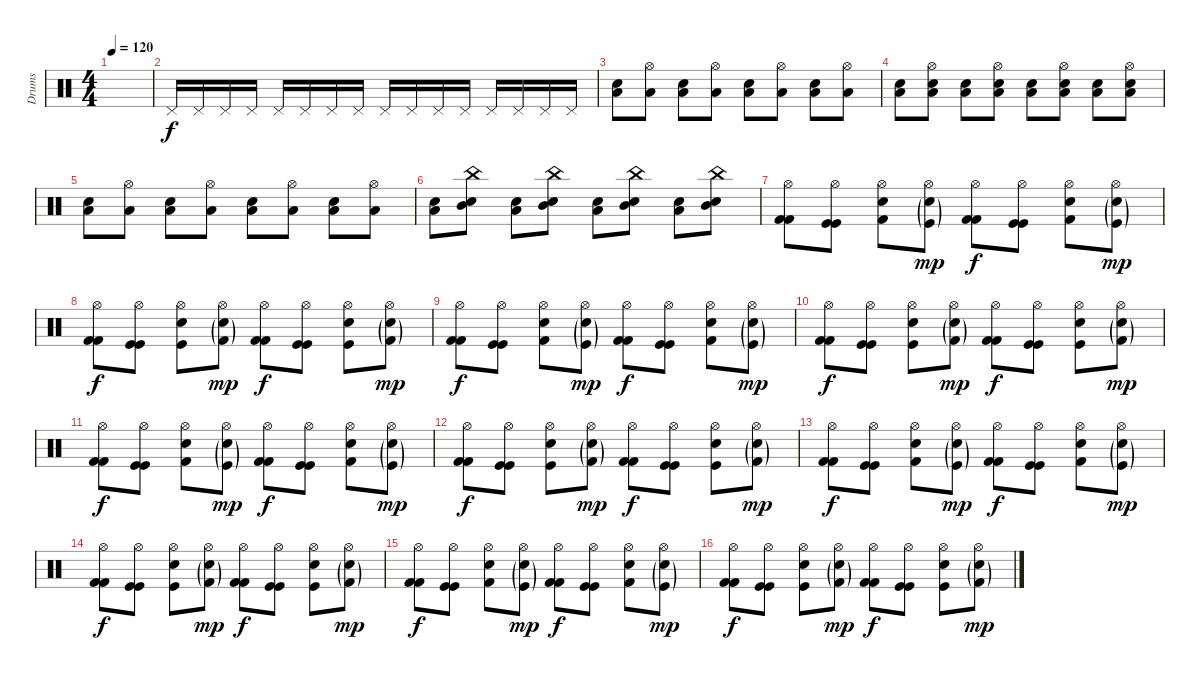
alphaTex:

\track ("Drums" "Drums") {instrument percussion}
\staff {score}
\articulation defaults
\ts (4 4)
\tempo 120
\clef neutral
\ks c
|
"Pedal Hi-Hat (hit)".16{dy f volume 16} "Pedal Hi-Hat (hit)".16 "Pedal Hi-Hat (hit)".16 "Pedal Hi-Hat (hit)".16 "Pedal Hi-Hat (hit)".16 "Pedal Hi-Hat (hit)".16 "Pedal Hi-Hat (hit)".16 "Pedal Hi-Hat (hit)".16 "Pedal Hi-Hat (hit)".16 "Pedal Hi-Hat (hit)".16 "Pedal Hi-Hat (hit)".16 "Pedal Hi-Hat (hit)".16 "Pedal Hi-Hat (hit)".16 "Pedal Hi-Hat (hit)".16 "Pedal Hi-Hat (hit)".16 "Pedal Hi-Hat (hit)".16 |
("Electric Snare (hit)" "Low Tom (hit)").8 ("Hi-Hat (open)" "Low Tom (hit)").8 ("Electric Snare (hit)" "Low Tom (hit)").8 ("Hi-Hat (open)" "Low Tom (hit)").8 ("Electric Snare (hit)" "Low Tom (hit)").8 ("Hi-Hat (open)" "Low Tom (hit)").8 ("Electric Snare (hit)" "Low Tom (hit)").8 ("Hi-Hat (open)" "Low Tom (hit)").8 |
("Electric Snare (hit)" "Low Tom (hit)").8 ("Hi-Hat (open)" "Electric Snare (hit)" "Low Tom (hit)").8 ("Electric Snare (hit)" "Low Tom (hit)").8 ("Hi-Hat (open)" "Electric Snare (hit)" "Low Tom (hit)").8 ("Electric Snare (hit)" "Low Tom (hit)").8 ("Hi-Hat (open)" "Electric Snare (hit)" "Low Tom (hit)").8 ("Electric Snare (hit)" "Low Tom (hit)").8 ("Hi-Hat (open)" "Electric Snare (hit)" "Low Tom (hit)").8 |
("Electric Snare (hit)" "Low Tom (hit)").8 ("Hi-Hat (open)" "Low Tom (hit)").8 ("Electric Snare (hit)" "Low Tom (hit)").8 ("Hi-Hat (open)" "Low Tom (hit)").8 ("Electric Snare (hit)" "Low Tom (hit)").8 ("Hi-Hat (open)" "Low Tom (hit)").8 ("Electric Snare (hit)" "Low Tom (hit)").8 ("Hi-Hat (open)" "Low Tom (hit)").8 |
("Electric Snare (hit)" "Low Tom (hit)").8 ("China (hit)" "Snare (hit) 2" "Mid Tom (hit)").8 ("Electric Snare (hit)" "Low Tom (hit)").8 ("China (hit)" "Snare (hit) 2" "Mid Tom (hit)").8 ("Electric Snare (hit)" "Low Tom (hit)").8 ("China (hit)" "Snare (hit) 2" "Mid Tom (hit)").8 ("Electric Snare (hit)" "Low Tom (hit)").8 ("China (hit)" "Snare (hit) 2" "Mid Tom (hit)").8 |
("Hi-Hat (open)" "Kick (hit) 2" "Kick (hit) 2").8 ("Hi-Hat (open)" "Kick (hit)" "Kick (hit)").8 ("Hi-Hat (open)" "Snare (hit) 2" "Kick (hit) 2").8 ("Hi-Hat (open)" "Electric Snare (hit)"{g} "Kick (hit)"{g}).8{dy mp} ("Hi-Hat (open)" "Kick (hit) 2" "Kick (hit) 2").8{dy f} ("Hi-Hat (open)" "Kick (hit)" "Kick (hit)").8 ("Hi-Hat (open)" "Snare (hit) 2" "Kick (hit) 2").8 ("Hi-Hat (open)" "Electric Snare (hit)"{g} "Kick (hit)"{g}).8{dy mp} |
("Hi-Hat (open)" "Kick (hit) 2" "Kick (hit) 2").8{dy f} ("Hi-Hat (open)" "Kick (hit)" "Kick (hit)").8 ("Hi-Hat (open)" "Electric Snare (hit)" "Kick (hit)").8 ("Hi-Hat (open)" "Snare (hit) 2"{g} "Kick (hit) 2"{g}).8{dy mp} ("Hi-Hat (open)" "Kick (hit) 2" "Kick (hit) 2").8{dy f} ("Hi-Hat (open)" "Kick (hit)" "Kick (hit)").8 ("Hi-Hat (open)" "Electric Snare (hit)" "Kick (hit)").8 ("Hi-Hat (open)" "Snare (hit) 2"{g} "Kick (hit) 2"{g}).8{dy mp} |
("Hi-Hat (open)" "Kick (hit) 2" "Kick (hit) 2").8{dy f} ("Hi-Hat (open)" "Kick (hit)" "Kick (hit)").8 ("Hi-Hat (open)" "Snare (hit) 2" "Kick (hit) 2").8 ("Hi-Hat (open)" "Electric Snare (hit)"{g} "Kick (hit)"{g}).8{dy mp} ("Hi-Hat (open)" "Kick (hit) 2" "Kick (hit) 2").8{dy f} ("Hi-Hat (open)" "Kick (hit)" "Kick (hit)").8 ("Hi-Hat (open)" "Snare (hit) 2" "Kick (hit) 2").8 ("Hi-Hat (open)" "Electric Snare (hit)"{g} "Kick (hit)"{g}).8{dy mp} |
("Hi-Hat (open)" "Kick (hit) 2" "Kick (hit) 2").8{dy f} ("Hi-Hat (open)" "Kick (hit)" "Kick (hit)").8 ("Hi-Hat (open)" "Electric Snare (hit)" "Kick (hit)").8 ("Hi-Hat (open)" "Snare (hit) 2"{g} "Kick (hit) 2"{g}).8{dy mp} ("Hi-Hat (open)" "Kick (hit) 2" "Kick (hit) 2").8{dy f} ("Hi-Hat (open)" "Kick (hit)" "Kick (hit)").8 ("Hi-Hat (open)" "Electric Snare (hit)" "Kick (hit)").8 ("Hi-Hat (open)" "Snare (hit) 2"{g} "Kick (hit) 2"{g}).8{dy mp} |
("Hi-Hat (open)" "Kick (hit) 2" "Kick (hit) 2").8{dy f} ("Hi-Hat (open)" "Kick (hit)" "Kick (hit)").8 ("Hi-Hat (open)" "Snare (hit) 2" "Kick (hit) 2").8 ("Hi-Hat (open)" "Electric Snare (hit)"{g} "Kick (hit)"{g}).8{dy mp} ("Hi-Hat (open)" "Kick (hit) 2" "Kick (hit) 2").8{dy f} ("Hi-Hat (open)" "Kick (hit)" "Kick (hit)").8 ("Hi-Hat (open)" "Snare (hit) 2" "Kick (hit) 2").8 ("Hi-Hat (open)" "Electric Snare (hit)"{g} "Kick (hit)"{g}).8{dy mp} |
("Hi-Hat (open)" "Kick (hit) 2" "Kick (hit) 2").8{dy f} ("Hi-Hat (open)" "Kick (hit)" "Kick (hit)").8 ("Hi-Hat (open)" "Electric Snare (hit)" "Kick (hit)").8 ("Hi-Hat (open)" "Snare (hit) 2"{g} "Kick (hit) 2"{g}).8{dy mp} ("Hi-Hat (open)" "Kick (hit) 2" "Kick (hit) 2").8{dy f} ("Hi-Hat (open)" "Kick (hit)" "Kick (hit)").8 ("Hi-Hat (open)" "Electric Snare (hit)" "Kick (hit)").8 ("Hi-Hat (open)" "Snare (hit) 2"{g} "Kick (hit) 2"{g}).8{dy mp} |
("Hi-Hat (open)" "Kick (hit) 2" "Kick (hit) 2").8{dy f} ("Hi-Hat (open)" "Kick (hit)" "Kick (hit)").8 ("Hi-Hat (open)" "Snare (hit) 2" "Kick (hit) 2").8 ("Hi-Hat (open)" "Electric Snare (hit)"{g} "Kick (hit)"{g}).8{dy mp} ("Hi-Hat (open)" "Kick (hit) 2" "Kick (hit) 2").8{dy f} ("Hi-Hat (open)" "Kick (hit)" "Kick (hit)").8 ("Hi-Hat (open)" "Snare (hit) 2" "Kick (hit) 2").8 ("Hi-Hat (open)" "Electric Snare (hit)"{g} "Kick (hit)"{g}).8{dy mp} |
("Hi-Hat (open)" "Kick (hit) 2" "Kick (hit) 2").8{dy f} ("Hi-Hat (open)" "Kick (hit)" "Kick (hit)").8 ("Hi-Hat (open)" "Electric Snare (hit)" "Kick (hit)").8 ("Hi-Hat (open)" "Snare (hit) 2"{g} "Kick (hit) 2"{g}).8{dy mp} ("Hi-Hat (open)" "Kick (hit) 2" "Kick (hit) 2").8{dy f} ("Hi-Hat (open)" "Kick (hit)" "Kick (hit)").8 ("Hi-Hat (open)" "Electric Snare (hit)" "Kick (hit)").8 ("Hi-Hat (open)" "Snare (hit) 2"{g} "Kick (hit) 2"{g}).8{dy mp} |
("Hi-Hat (open)" "Kick (hit) 2" "Kick (hit) 2").8{dy f} ("Hi-Hat (open)" "Kick (hit)" "Kick (hit)").8 ("Hi-Hat (open)" "Snare (hit) 2" "Kick (hit) 2").8 ("Hi-Hat (open)" "Electric Snare (hit)"{g} "Kick (hit)"{g}).8{dy mp} ("Hi-Hat (open)" "Kick (hit) 2" "Kick (hit) 2").8{dy f} ("Hi-Hat (open)" "Kick (hit)" "Kick (hit)").8 ("Hi-Hat (open)" "Snare (hit) 2" "Kick (hit) 2").8 ("Hi-Hat (open)" "Electric Snare (hit)"{g} "Kick (hit)"{g}).8{dy mp} |
("Hi-Hat (open)" "Kick (hit) 2" "Kick (hit) 2").8{dy f} ("Hi-Hat (open)" "Kick (hit)" "Kick (hit)").8 ("Hi-Hat (open)" "Electric Snare (hit)" "Kick (hit)").8 ("Hi-Hat (open)" "Snare (hit) 2"{g} "Kick (hit) 2"{g}).8{dy mp} ("Hi-Hat (open)" "Kick (hit) 2" "Kick (hit) 2").8{dy f} ("Hi-Hat (open)" "Kick (hit)" "Kick (hit)").8 ("Hi-Hat (open)" "Electric Snare (hit)" "Kick (hit)").8 ("Hi-Hat (open)" "Snare (hit) 2"{g} "Kick (hit) 2"{g}).8{dy mp}
